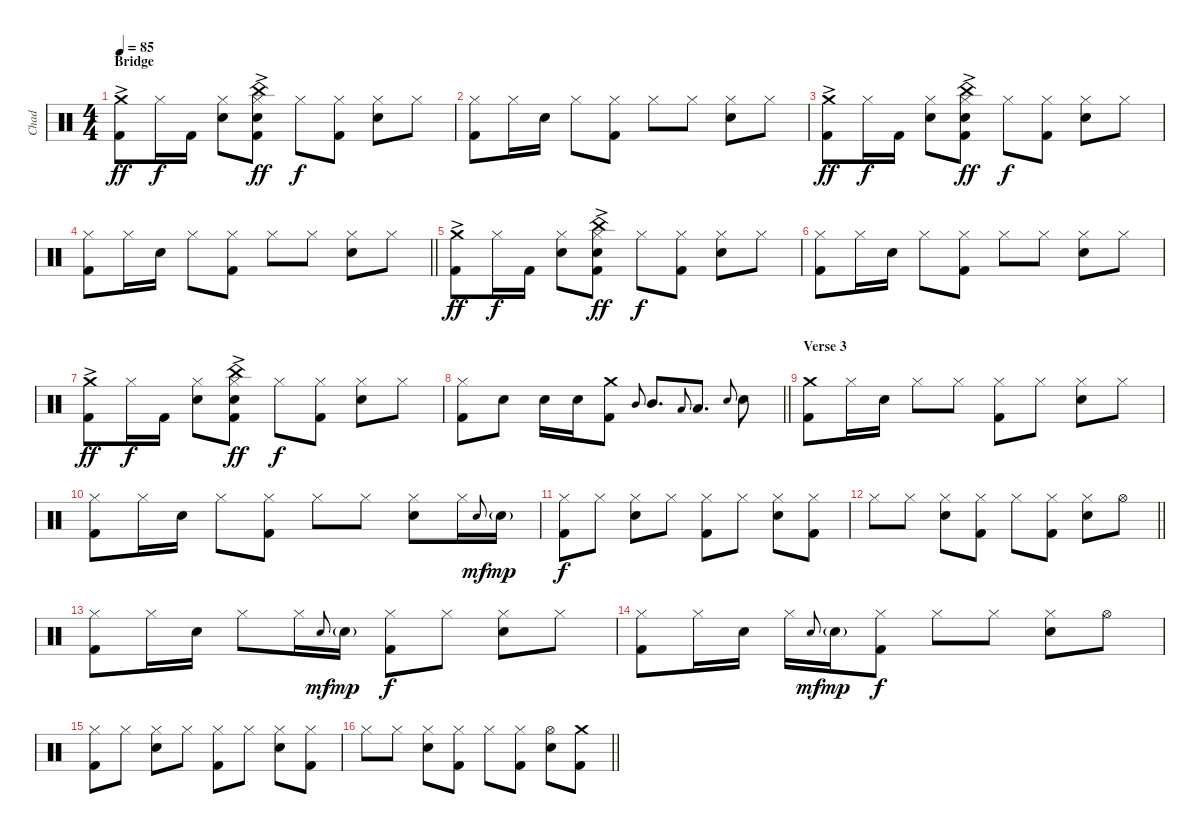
\track ("Chad" "Chad") {instrument percussion}
\staff {score}
\articulation defaults
\ts (4 4)
\section ("" "Bridge")
\tempo 85
\clef neutral
\ks c
("Crash medium (hit)"{ac} "Kick (hit) 2"{ac}).8{dy ff} "Hi-Hat (closed)".16{dy f} "Kick (hit) 2".16 ("Electric Snare (hit)" "Hi-Hat (closed)").8 ("China (hit)"{ac} "Electric Snare (hit)" "Hi-Hat (closed)" "Kick (hit) 2").8{dy ff} "Hi-Hat (closed)".8{dy f} ("Hi-Hat (closed)" "Kick (hit) 2").8 ("Electric Snare (hit)" "Hi-Hat (closed)").8 "Hi-Hat (closed)".8 |
("Hi-Hat (closed)" "Kick (hit) 2").8 "Hi-Hat (closed)".16 "Electric Snare (hit)".16 "Hi-Hat (closed)".8 ("Hi-Hat (closed)" "Kick (hit) 2").8 "Hi-Hat (closed)".8 "Hi-Hat (closed)".8 ("Electric Snare (hit)" "Hi-Hat (closed)").8 "Hi-Hat (closed)".8 |
("Crash medium (hit)"{ac} "Kick (hit) 2"{ac}).8{dy ff} "Hi-Hat (closed)".16{dy f} "Kick (hit) 2".16 ("Electric Snare (hit)" "Hi-Hat (closed)").8 ("China (hit)"{ac} "Electric Snare (hit)"{ac} "Hi-Hat (closed)"{ac} "Kick (hit) 2"{ac}).8{dy ff} "Hi-Hat (closed)".8{dy f} ("Hi-Hat (closed)" "Kick (hit) 2").8 ("Electric Snare (hit)" "Hi-Hat (closed)").8 "Hi-Hat (closed)".8 |
\barLineRight lightlight
("Hi-Hat (closed)" "Kick (hit) 2").8 "Hi-Hat (closed)".16 "Electric Snare (hit)".16 "Hi-Hat (closed)".8 ("Hi-Hat (closed)" "Kick (hit) 2").8 "Hi-Hat (closed)".8 "Hi-Hat (closed)".8 ("Electric Snare (hit)" "Hi-Hat (closed)").8 "Hi-Hat (closed)".8 |
("Crash medium (hit)"{ac} "Kick (hit) 2"{ac}).8{dy ff} "Hi-Hat (closed)".16{dy f} "Kick (hit) 2".16 ("Electric Snare (hit)" "Hi-Hat (closed)").8 ("China (hit)"{ac} "Electric Snare (hit)"{ac} "Hi-Hat (closed)"{ac} "Kick (hit) 2"{ac}).8{dy ff} "Hi-Hat (closed)".8{dy f} ("Hi-Hat (closed)" "Kick (hit) 2").8 ("Electric Snare (hit)" "Hi-Hat (closed)").8 "Hi-Hat (closed)".8 |
("Hi-Hat (closed)" "Kick (hit) 2").8 "Hi-Hat (closed)".16 "Electric Snare (hit)".16 "Hi-Hat (closed)".8 ("Hi-Hat (closed)" "Kick (hit) 2").8 "Hi-Hat (closed)".8 "Hi-Hat (closed)".8 ("Electric Snare (hit)" "Hi-Hat (closed)").8 "Hi-Hat (closed)".8 |
("Crash medium (hit)"{ac} "Kick (hit) 2"{ac}).8{dy ff} "Hi-Hat (closed)".16{dy f} "Kick (hit) 2".16 ("Electric Snare (hit)" "Hi-Hat (closed)").8 ("China (hit)"{ac} "Electric Snare (hit)"{ac} "Hi-Hat (closed)"{ac} "Kick (hit) 2"{ac}).8{dy ff} "Hi-Hat (closed)".8{dy f} ("Hi-Hat (closed)" "Kick (hit) 2").8 ("Electric Snare (hit)" "Hi-Hat (closed)").8 "Hi-Hat (closed)".8 |
\barLineRight lightlight
("Hi-Hat (closed)" "Kick (hit) 2").8 "Electric Snare (hit)".8 "Electric Snare (hit)".16 "Electric Snare (hit)".16 ("Crash medium (hit)" "Kick (hit) 2").8 "Mid Tom (hit)".8{gr onbeat} "Mid Tom (hit)".8{d} "Low Tom (hit)".8{gr onbeat} "Low Tom (hit)".8{d} "Electric Snare (hit)".8{gr onbeat} "Electric Snare (hit)".8 |
\section ("" "Verse 3")
("Crash medium (hit)" "Kick (hit) 2").8 "Hi-Hat (closed)".16 "Electric Snare (hit)".16 "Hi-Hat (closed)".8 "Hi-Hat (closed)".8 ("Hi-Hat (closed)" "Kick (hit) 2").8 "Hi-Hat (closed)".8 ("Electric Snare (hit)" "Hi-Hat (closed)").8 "Hi-Hat (closed)".8 |
("Hi-Hat (closed)" "Kick (hit) 2").8 "Hi-Hat (closed)".16 "Electric Snare (hit)".16 "Hi-Hat (closed)".8 ("Hi-Hat (closed)" "Kick (hit) 2").8 "Hi-Hat (closed)".8 "Hi-Hat (closed)".8 ("Electric Snare (hit)" "Hi-Hat (closed)").8 "Hi-Hat (closed)".16 "Electric Snare (hit)".8{gr onbeat dy mf} "Electric Snare (hit)"{g}.16{dy mp} |
("Hi-Hat (closed)" "Kick (hit) 2").8{dy f} "Hi-Hat (closed)".8 ("Electric Snare (hit)" "Hi-Hat (closed)").8 "Hi-Hat (closed)".8 ("Hi-Hat (closed)" "Kick (hit) 2").8 "Hi-Hat (closed)".8 ("Electric Snare (hit)" "Hi-Hat (closed)").8 ("Hi-Hat (closed)" "Kick (hit) 2").8 |
\barLineRight lightlight "Hi-Hat (closed)".8 "Hi-Hat (closed)".8
("Electric Snare (hit)" "Hi-Hat (closed)").8 ("Hi-Hat (closed)" "Kick (hit) 2").8 "Hi-Hat (closed)".8 ("Hi-Hat (closed)" "Kick (hit) 2").8 ("Electric Snare (hit)" "Hi-Hat (closed)").8 "Hi-Hat (open)".8 |
("Hi-Hat (closed)" "Kick (hit) 2").8 "Hi-Hat (closed)".16 "Electric Snare (hit)".16 "Hi-Hat (closed)".8 "Hi-Hat (closed)".16 "Electric Snare (hit)".8{gr onbeat dy mf} "Electric Snare (hit)"{g}.16{dy mp} ("Hi-Hat (closed)" "Kick (hit) 2").8{dy f} "Hi-Hat (closed)".8 ("Electric Snare (hit)" "Hi-Hat (closed)").8 "Hi-Hat (closed)".8 |
("Hi-Hat (closed)" "Kick (hit) 2").8 "Hi-Hat (closed)".16 "Electric Snare (hit)".16 "Hi-Hat (closed)".16 "Electric Snare (hit)".8{gr onbeat dy mf} "Electric Snare (hit)"{g}.16{dy mp} ("Hi-Hat (closed)" "Kick (hit) 2").8{dy f} "Hi-Hat (closed)".8 "Hi-Hat (closed)".8 ("Electric Snare (hit)" "Hi-Hat (closed)").8 "Hi-Hat (open)".8 |
("Hi-Hat (closed)" "Kick (hit) 2").8 "Hi-Hat (closed)".8 ("Electric Snare (hit)" "Hi-Hat (closed)").8 "Hi-Hat (closed)".8 ("Hi-Hat (closed)" "Kick (hit) 2").8 "Hi-Hat (closed)".8 ("Electric Snare (hit)" "Hi-Hat (closed)").8 ("Hi-Hat (closed)" "Kick (hit) 2").8 |
\barLineRight lightlight "Hi-Hat (closed)".8 "Hi-Hat (closed)".8
("Electric Snare (hit)" "Hi-Hat (closed)").8 ("Hi-Hat (closed)" "Kick (hit) 2").8 "Hi-Hat (closed)".8 ("Hi-Hat (closed)" "Kick (hit) 2").8 ("Electric Snare (hit)" "Hi-Hat (open)").8 ("Crash medium (hit)" "Kick (hit) 2").8
